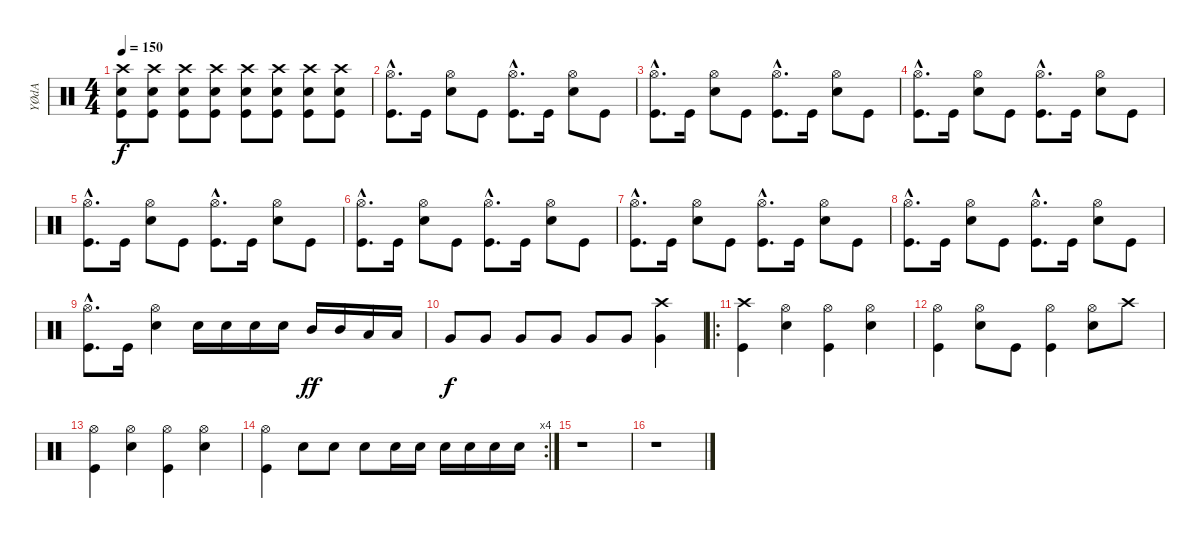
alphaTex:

\track ("YØdA" "YØdA") {instrument percussion}
\staff {score}
\articulation defaults
\ts (4 4)
\tempo 150
\clef neutral
\ks c
("Crash high (hit)" "Electric Snare (hit)" "Kick (hit)").8{dy f} ("Crash high (hit)" "Electric Snare (hit)" "Kick (hit)").8 ("Crash high (hit)" "Electric Snare (hit)" "Kick (hit)").8 ("Crash high (hit)" "Electric Snare (hit)" "Kick (hit)").8 ("Crash high (hit)" "Electric Snare (hit)" "Kick (hit)").8 ("Crash high (hit)" "Electric Snare (hit)" "Kick (hit)").8 ("Crash high (hit)" "Electric Snare (hit)" "Kick (hit)").8 ("Crash high (hit)" "Electric Snare (hit)" "Kick (hit)").8 |
("Hi-Hat (open)"{hac} "Kick (hit)"{hac}).8{d} "Kick (hit)".16 ("Hi-Hat (open)" "Electric Snare (hit)").8 "Kick (hit)".8 ("Hi-Hat (open)"{hac} "Kick (hit)"{hac}).8{d} "Kick (hit)".16 ("Hi-Hat (open)" "Electric Snare (hit)").8 "Kick (hit)".8 |
("Hi-Hat (open)"{hac} "Kick (hit)"{hac}).8{d} "Kick (hit)".16 ("Hi-Hat (open)" "Electric Snare (hit)").8 "Kick (hit)".8 ("Hi-Hat (open)"{hac} "Kick (hit)"{hac}).8{d} "Kick (hit)".16 ("Hi-Hat (open)" "Electric Snare (hit)").8 "Kick (hit)".8 |
("Hi-Hat (open)"{hac} "Kick (hit)"{hac}).8{d} "Kick (hit)".16 ("Hi-Hat (open)" "Electric Snare (hit)").8 "Kick (hit)".8 ("Hi-Hat (open)"{hac} "Kick (hit)"{hac}).8{d} "Kick (hit)".16 ("Hi-Hat (open)" "Electric Snare (hit)").8 "Kick (hit)".8 |
("Hi-Hat (open)"{hac} "Kick (hit)"{hac}).8{d} "Kick (hit)".16 ("Hi-Hat (open)" "Electric Snare (hit)").8 "Kick (hit)".8 ("Hi-Hat (open)"{hac} "Kick (hit)"{hac}).8{d} "Kick (hit)".16 ("Hi-Hat (open)" "Electric Snare (hit)").8 "Kick (hit)".8 |
("Hi-Hat (open)"{hac} "Kick (hit)"{hac}).8{d} "Kick (hit)".16 ("Hi-Hat (open)" "Electric Snare (hit)").8 "Kick (hit)".8 ("Hi-Hat (open)"{hac} "Kick (hit)"{hac}).8{d} "Kick (hit)".16 ("Hi-Hat (open)" "Electric Snare (hit)").8 "Kick (hit)".8 |
("Hi-Hat (open)"{hac} "Kick (hit)"{hac}).8{d} "Kick (hit)".16 ("Hi-Hat (open)" "Electric Snare (hit)").8 "Kick (hit)".8 ("Hi-Hat (open)"{hac} "Kick (hit)"{hac}).8{d} "Kick (hit)".16 ("Hi-Hat (open)" "Electric Snare (hit)").8 "Kick (hit)".8 |
("Hi-Hat (open)"{hac} "Kick (hit)"{hac}).8{d} "Kick (hit)".16 ("Hi-Hat (open)" "Electric Snare (hit)").8 "Kick (hit)".8 ("Hi-Hat (open)"{hac} "Kick (hit)"{hac}).8{d} "Kick (hit)".16 ("Hi-Hat (open)" "Electric Snare (hit)").8 "Kick (hit)".8 |
("Hi-Hat (open)"{hac} "Kick (hit)"{hac}).8{d} "Kick (hit)".16 ("Hi-Hat (open)" "Electric Snare (hit)").4 "Electric Snare (hit)".16 "Electric Snare (hit)".16 "Electric Snare (hit)".16 "Electric Snare (hit)".16 "Mid Tom (hit)".16{dy ff} "Mid Tom (hit)".16 "Low Tom (hit)".16 "Low Tom (hit)".16 |
"Very Low Tom (hit)".8{dy f} "Very Low Tom (hit)".8 "Very Low Tom (hit)".8 "Very Low Tom (hit)".8 "Very Low Tom (hit)".8 "Very Low Tom (hit)".8 ("Crash high (hit)" "Very Low Tom (hit)").4 |
\ro
("Crash high (hit)" "Kick (hit)").4 ("Hi-Hat (open)" "Electric Snare (hit)").4 ("Hi-Hat (open)" "Kick (hit)").4 ("Hi-Hat (open)" "Electric Snare (hit)").4 |
("Hi-Hat (open)" "Kick (hit)").4 ("Hi-Hat (open)" "Electric Snare (hit)").8 "Kick (hit)".8 ("Hi-Hat (open)" "Kick (hit)").4 ("Hi-Hat (open)" "Electric Snare (hit)").8 "Crash high (hit)".8 |
("Hi-Hat (open)" "Kick (hit)").4 ("Hi-Hat (open)" "Electric Snare (hit)").4 ("Hi-Hat (open)" "Kick (hit)").4 ("Hi-Hat (open)" "Electric Snare (hit)").4 |
\rc 4
("Hi-Hat (open)" "Kick (hit)").4 "Electric Snare (hit)".8 "Electric Snare (hit)".8 "Electric Snare (hit)".8 "Electric Snare (hit)".16 "Electric Snare (hit)".16 "Electric Snare (hit)".16 "Electric Snare (hit)".16 "Electric Snare (hit)".16 "Electric Snare (hit)".16 |
r.1 |
r.1
